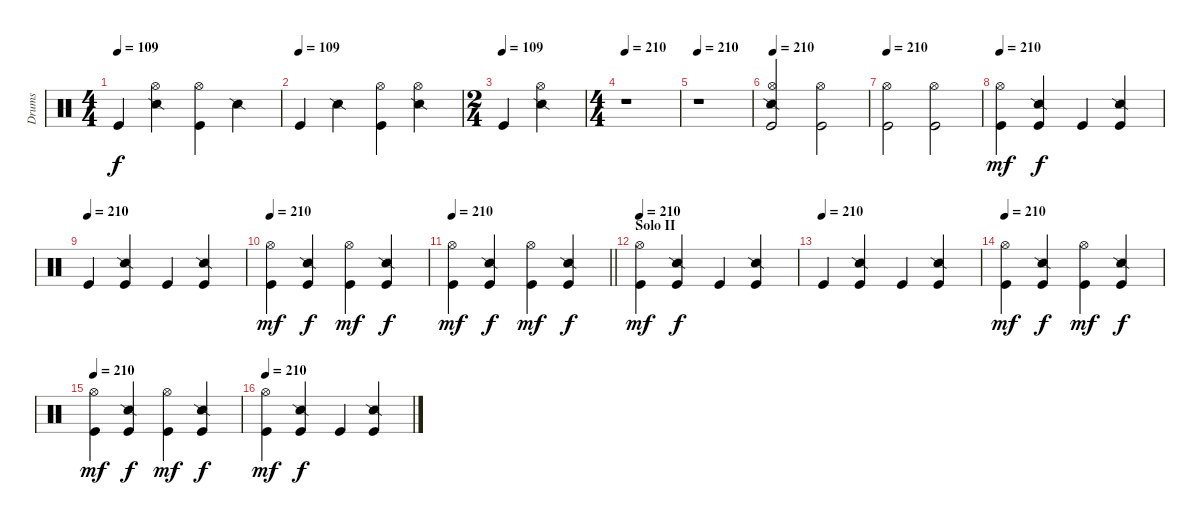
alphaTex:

\track ("Drums" "Drums") {instrument percussion}
\staff {score}
\articulation defaults
\ts (4 4)
\tempo 109
\clef neutral
\ks c "Kick (hit)".4{dy f}
("Hi-Hat (open)" "Snare (side stick) 2").4 ("Hi-Hat (open)" "Kick (hit)").4 "Snare (side stick) 2".4 |
\tempo (109)
"Kick (hit)".4 "Snare (side stick) 2".4 ("Hi-Hat (open)" "Kick (hit)").4 ("Hi-Hat (open)" "Snare (side stick) 2").4 |
\ts (2 4)
\tempo (109)
"Kick (hit)".4 ("Hi-Hat (open)" "Snare (side stick) 2").4 |
\ts (4 4)
\tempo 210
r.1 |
\tempo 210
r.1 |
\tempo 210
("Hi-Hat (open)" "Snare (side stick) 2" "Kick (hit)").2 ("Hi-Hat (open)" "Kick (hit)").2 |
\tempo 210
("Hi-Hat (open)" "Kick (hit)").2 ("Hi-Hat (open)" "Kick (hit)").2 |
\tempo 210
("Hi-Hat (open)" "Kick (hit)").4{dy mf} ("Snare (side stick) 2" "Kick (hit)").4{dy f} "Kick (hit)".4 ("Snare (side stick) 2" "Kick (hit)").4 |
\tempo (210)
"Kick (hit)".4 ("Snare (side stick) 2" "Kick (hit)").4 "Kick (hit)".4 ("Snare (side stick) 2" "Kick (hit)").4 |
\tempo 210
("Hi-Hat (open)" "Kick (hit)").4{dy mf} ("Snare (side stick) 2" "Kick (hit)").4{dy f} ("Hi-Hat (open)" "Kick (hit)").4{dy mf} ("Snare (side stick) 2" "Kick (hit)").4{dy f} |
\tempo 210
\barLineRight lightlight
("Hi-Hat (open)" "Kick (hit)").4{dy mf} ("Snare (side stick) 2" "Kick (hit)").4{dy f} ("Hi-Hat (open)" "Kick (hit)").4{dy mf} ("Snare (side stick) 2" "Kick (hit)").4{dy f} |
\section ("" "Solo II")
\tempo 210
("Hi-Hat (open)" "Kick (hit)").4{dy mf} ("Snare (side stick) 2" "Kick (hit)").4{dy f} "Kick (hit)".4 ("Snare (side stick) 2" "Kick (hit)").4 |
\tempo (210)
"Kick (hit)".4 ("Snare (side stick) 2" "Kick (hit)").4 "Kick (hit)".4 ("Snare (side stick) 2" "Kick (hit)").4 |
\tempo 210
("Hi-Hat (open)" "Kick (hit)").4{dy mf} ("Snare (side stick) 2" "Kick (hit)").4{dy f} ("Hi-Hat (open)" "Kick (hit)").4{dy mf} ("Snare (side stick) 2" "Kick (hit)").4{dy f} |
\tempo 210
("Hi-Hat (open)" "Kick (hit)").4{dy mf} ("Snare (side stick) 2" "Kick (hit)").4{dy f} ("Hi-Hat (open)" "Kick (hit)").4{dy mf} ("Snare (side stick) 2" "Kick (hit)").4{dy f} |
\tempo 210
("Hi-Hat (open)" "Kick (hit)").4{dy mf} ("Snare (side stick) 2" "Kick (hit)").4{dy f} "Kick (hit)".4 ("Snare (side stick) 2" "Kick (hit)").4
